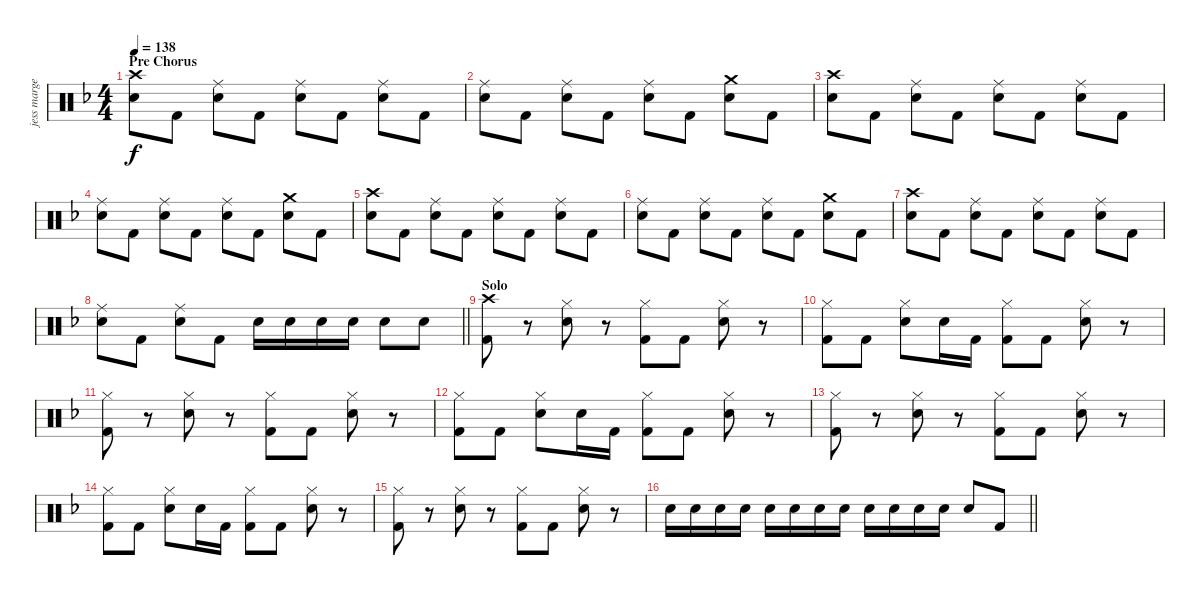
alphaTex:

\track ("jess margera" "jess marge") {instrument percussion}
\staff {score}
\articulation defaults
\ts (4 4)
\section ("" "Pre Chorus")
\tempo 138
\clef neutral
\ks f
("Crash high (hit)" "Electric Snare (hit)").8{dy f} "Kick (hit) 2".8 ("Ride (middle)" "Electric Snare (hit)").8 "Kick (hit) 2".8 ("Ride (middle)" "Electric Snare (hit)").8 "Kick (hit) 2".8 ("Ride (middle)" "Electric Snare (hit)").8 "Kick (hit) 2".8 |
("Ride (middle)" "Electric Snare (hit)").8 "Kick (hit) 2".8 ("Ride (middle)" "Electric Snare (hit)").8 "Kick (hit) 2".8 ("Ride (middle)" "Electric Snare (hit)").8 "Kick (hit) 2".8 ("Crash medium (hit)" "Electric Snare (hit)").8 "Kick (hit) 2".8 |
("Crash high (hit)" "Electric Snare (hit)").8 "Kick (hit) 2".8 ("Ride (middle)" "Electric Snare (hit)").8 "Kick (hit) 2".8 ("Ride (middle)" "Electric Snare (hit)").8 "Kick (hit) 2".8 ("Ride (middle)" "Electric Snare (hit)").8 "Kick (hit) 2".8 |
("Ride (middle)" "Electric Snare (hit)").8 "Kick (hit) 2".8 ("Ride (middle)" "Electric Snare (hit)").8 "Kick (hit) 2".8 ("Ride (middle)" "Electric Snare (hit)").8 "Kick (hit) 2".8 ("Crash medium (hit)" "Electric Snare (hit)").8 "Kick (hit) 2".8 |
("Crash high (hit)" "Electric Snare (hit)").8 "Kick (hit) 2".8 ("Ride (middle)" "Electric Snare (hit)").8 "Kick (hit) 2".8 ("Ride (middle)" "Electric Snare (hit)").8 "Kick (hit) 2".8 ("Ride (middle)" "Electric Snare (hit)").8 "Kick (hit) 2".8 |
("Ride (middle)" "Electric Snare (hit)").8 "Kick (hit) 2".8 ("Ride (middle)" "Electric Snare (hit)").8 "Kick (hit) 2".8 ("Ride (middle)" "Electric Snare (hit)").8 "Kick (hit) 2".8 ("Crash medium (hit)" "Electric Snare (hit)").8 "Kick (hit) 2".8 |
("Crash high (hit)" "Electric Snare (hit)").8 "Kick (hit) 2".8 ("Ride (middle)" "Electric Snare (hit)").8 "Kick (hit) 2".8 ("Ride (middle)" "Electric Snare (hit)").8 "Kick (hit) 2".8 ("Ride (middle)" "Electric Snare (hit)").8 "Kick (hit) 2".8 |
\barLineRight lightlight
("Ride (middle)" "Electric Snare (hit)").8 "Kick (hit) 2".8 ("Ride (middle)" "Electric Snare (hit)").8 "Kick (hit) 2".8 "Electric Snare (hit)".16 "Electric Snare (hit)".16 "Electric Snare (hit)".16 "Electric Snare (hit)".16 "Electric Snare (hit)".8 "Electric Snare (hit)".8 |
\section ("" "Solo")
("Crash high (hit)" "Kick (hit) 2").8 r.8 ("Hi-Hat (closed)" "Electric Snare (hit)").8 r.8 ("Hi-Hat (closed)" "Kick (hit) 2").8 "Kick (hit) 2".8 ("Hi-Hat (closed)" "Electric Snare (hit)").8 r.8 |
("Hi-Hat (closed)" "Kick (hit) 2").8 "Kick (hit) 2".8 ("Hi-Hat (closed)" "Electric Snare (hit)").8 "Electric Snare (hit)".16 "Kick (hit) 2".16 ("Hi-Hat (closed)" "Kick (hit) 2").8 "Kick (hit) 2".8 ("Hi-Hat (closed)" "Electric Snare (hit)").8 r.8 |
("Hi-Hat (closed)" "Kick (hit) 2").8 r.8 ("Hi-Hat (closed)" "Electric Snare (hit)").8 r.8 ("Hi-Hat (closed)" "Kick (hit) 2").8 "Kick (hit) 2".8 ("Hi-Hat (closed)" "Electric Snare (hit)").8 r.8 |
("Hi-Hat (closed)" "Kick (hit) 2").8 "Kick (hit) 2".8 ("Hi-Hat (closed)" "Electric Snare (hit)").8 "Electric Snare (hit)".16 "Kick (hit) 2".16 ("Hi-Hat (closed)" "Kick (hit) 2").8 "Kick (hit) 2".8 ("Hi-Hat (closed)" "Electric Snare (hit)").8 r.8 |
("Hi-Hat (closed)" "Kick (hit) 2").8 r.8 ("Hi-Hat (closed)" "Electric Snare (hit)").8 r.8 ("Hi-Hat (closed)" "Kick (hit) 2").8 "Kick (hit) 2".8 ("Hi-Hat (closed)" "Electric Snare (hit)").8 r.8 |
("Hi-Hat (closed)" "Kick (hit) 2").8 "Kick (hit) 2".8 ("Hi-Hat (closed)" "Electric Snare (hit)").8 "Electric Snare (hit)".16 "Kick (hit) 2".16 ("Hi-Hat (closed)" "Kick (hit) 2").8 "Kick (hit) 2".8 ("Hi-Hat (closed)" "Electric Snare (hit)").8 r.8 |
("Hi-Hat (closed)" "Kick (hit) 2").8 r.8 ("Hi-Hat (closed)" "Electric Snare (hit)").8 r.8 ("Hi-Hat (closed)" "Kick (hit) 2").8 "Kick (hit) 2".8 ("Hi-Hat (closed)" "Electric Snare (hit)").8 r.8 |
\barLineRight lightlight "Electric Snare (hit)".16 "Electric Snare (hit)".16 "Electric Snare (hit)".16 "Electric Snare (hit)".16 "Electric Snare (hit)".16 "Electric Snare (hit)".16 "Electric Snare (hit)".16 "Electric Snare (hit)".16 "Electric Snare (hit)".16 "Electric Snare (hit)".16 "Electric Snare (hit)".16 "Electric Snare (hit)".16 "Electric Snare (hit)".8 "Kick (hit) 2".8
